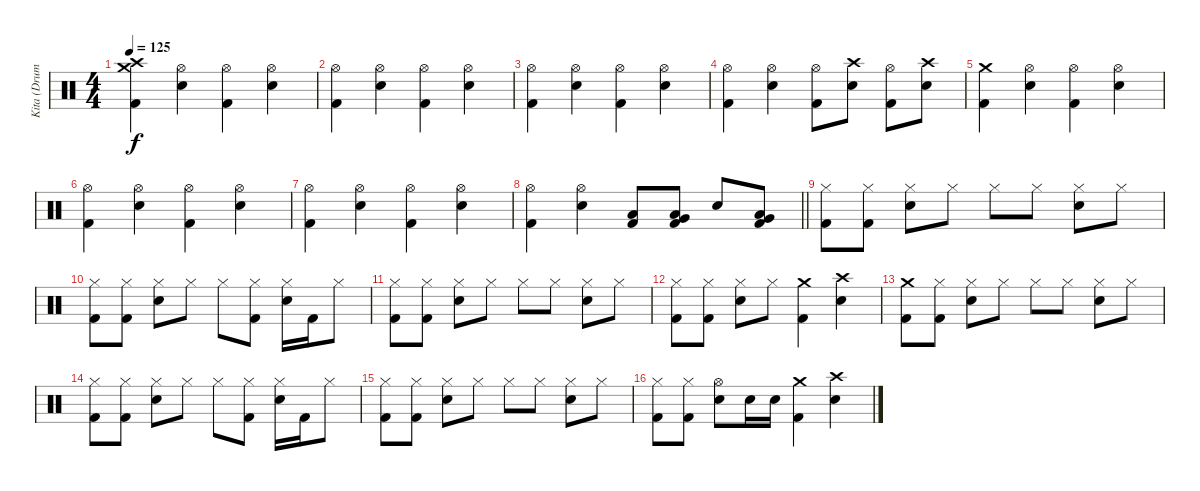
\track ("Kita (Drums)" "Kita (Drum") {instrument percussion}
\staff {score}
\articulation defaults
\ts (4 4)
\tempo 125
\clef neutral
\ks c
("Crash medium (hit)" "Crash high (hit)" "Kick (hit) 2").4{dy f} ("Hi-Hat (open)" "Electric Snare (hit)").4 ("Hi-Hat (open)" "Kick (hit) 2").4 ("Hi-Hat (open)" "Electric Snare (hit)").4 |
("Hi-Hat (open)" "Kick (hit) 2").4 ("Hi-Hat (open)" "Electric Snare (hit)").4 ("Hi-Hat (open)" "Kick (hit) 2").4 ("Hi-Hat (open)" "Electric Snare (hit)").4 |
("Hi-Hat (open)" "Kick (hit) 2").4 ("Hi-Hat (open)" "Electric Snare (hit)").4 ("Hi-Hat (open)" "Kick (hit) 2").4 ("Hi-Hat (open)" "Electric Snare (hit)").4 |
("Hi-Hat (open)" "Kick (hit) 2").4 ("Hi-Hat (open)" "Electric Snare (hit)").4 ("Hi-Hat (open)" "Kick (hit) 2").8 ("Crash high (hit)" "Electric Snare (hit)").8 ("Hi-Hat (open)" "Kick (hit) 2").8 ("Crash high (hit)" "Electric Snare (hit)").8 |
("Crash medium (hit)" "Kick (hit) 2").4 ("Hi-Hat (open)" "Electric Snare (hit)").4 ("Hi-Hat (open)" "Kick (hit) 2").4 ("Hi-Hat (open)" "Electric Snare (hit)").4 |
("Hi-Hat (open)" "Kick (hit) 2").4 ("Hi-Hat (open)" "Electric Snare (hit)").4 ("Hi-Hat (open)" "Kick (hit) 2").4 ("Hi-Hat (open)" "Electric Snare (hit)").4 |
("Hi-Hat (open)" "Kick (hit) 2").4 ("Hi-Hat (open)" "Electric Snare (hit)").4 ("Hi-Hat (open)" "Kick (hit) 2").4 ("Hi-Hat (open)" "Electric Snare (hit)").4 |
\barLineRight lightlight
("Hi-Hat (open)" "Kick (hit) 2").4 ("Hi-Hat (open)" "Electric Snare (hit)").4 ("Low Floor Tom (hit)" "Kick (hit) 2").8 ("Low Floor Tom (hit)" "Very Low Tom (hit)" "Kick (hit) 2").8 "Electric Snare (hit)".8 ("Low Floor Tom (hit)" "Very Low Tom (hit)" "Kick (hit) 2").8 |
("Hi-Hat (closed)" "Kick (hit) 2").8 ("Hi-Hat (closed)" "Kick (hit) 2").8 ("Hi-Hat (closed)" "Electric Snare (hit)").8 "Hi-Hat (closed)".8 "Hi-Hat (closed)".8 "Hi-Hat (closed)".8 ("Hi-Hat (closed)" "Electric Snare (hit)").8 "Hi-Hat (closed)".8 |
("Hi-Hat (closed)" "Kick (hit) 2").8 ("Hi-Hat (closed)" "Kick (hit) 2").8 ("Hi-Hat (closed)" "Electric Snare (hit)").8 "Hi-Hat (closed)".8 "Hi-Hat (closed)".8 ("Hi-Hat (closed)" "Kick (hit) 2").8 ("Hi-Hat (closed)" "Electric Snare (hit)").16 "Kick (hit) 2".16 "Hi-Hat (closed)".8 |
("Hi-Hat (closed)" "Kick (hit) 2").8 ("Hi-Hat (closed)" "Kick (hit) 2").8 ("Hi-Hat (closed)" "Electric Snare (hit)").8 "Hi-Hat (closed)".8 "Hi-Hat (closed)".8 "Hi-Hat (closed)".8 ("Hi-Hat (closed)" "Electric Snare (hit)").8 "Hi-Hat (closed)".8 |
("Hi-Hat (closed)" "Kick (hit) 2").8 ("Hi-Hat (closed)" "Kick (hit) 2").8 ("Hi-Hat (closed)" "Electric Snare (hit)").8 "Hi-Hat (closed)".8 ("Crash medium (hit)" "Kick (hit) 2").4 ("Crash high (hit)" "Electric Snare (hit)").4 |
("Crash medium (hit)" "Kick (hit) 2").8 ("Hi-Hat (closed)" "Kick (hit) 2").8 ("Hi-Hat (closed)" "Electric Snare (hit)").8 "Hi-Hat (closed)".8 "Hi-Hat (closed)".8 "Hi-Hat (closed)".8 ("Hi-Hat (closed)" "Electric Snare (hit)").8 "Hi-Hat (closed)".8 |
("Hi-Hat (closed)" "Kick (hit) 2").8 ("Hi-Hat (closed)" "Kick (hit) 2").8 ("Hi-Hat (closed)" "Electric Snare (hit)").8 "Hi-Hat (closed)".8 "Hi-Hat (closed)".8 ("Hi-Hat (closed)" "Kick (hit) 2").8 ("Hi-Hat (closed)" "Electric Snare (hit)").16 "Kick (hit) 2".16 "Hi-Hat (closed)".8 |
("Hi-Hat (closed)" "Kick (hit) 2").8 ("Hi-Hat (closed)" "Kick (hit) 2").8 ("Hi-Hat (closed)" "Electric Snare (hit)").8 "Hi-Hat (closed)".8 "Hi-Hat (closed)".8 "Hi-Hat (closed)".8 ("Hi-Hat (closed)" "Electric Snare (hit)").8 "Hi-Hat (closed)".8 |
("Hi-Hat (closed)" "Kick (hit) 2").8 ("Hi-Hat (closed)" "Kick (hit) 2").8 ("Hi-Hat (open)" "Electric Snare (hit)").8 "Electric Snare (hit)".16 "Electric Snare (hit)".16 ("Crash medium (hit)" "Kick (hit) 2").4 ("Crash high (hit)" "Electric Snare (hit)").4
